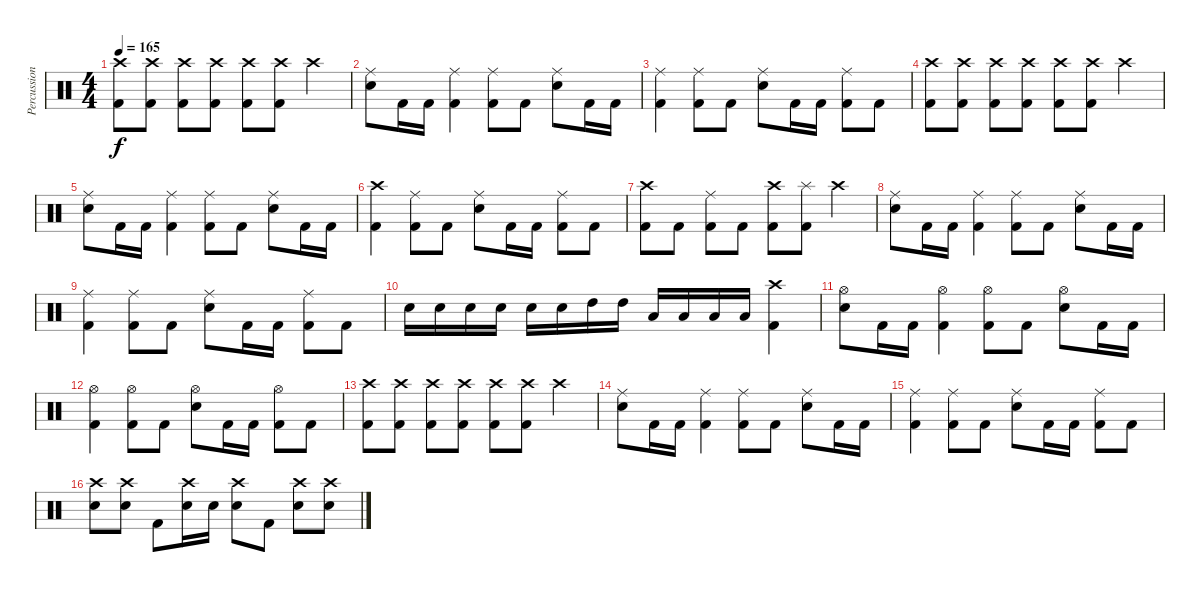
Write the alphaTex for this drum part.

\track ("Percussion" "Percussion") {instrument percussion}
\staff {score}
\articulation defaults
\ts (4 4)
\tempo 165
\clef neutral
\ks c
("Crash high (hit)" "Kick (hit) 2").8{dy f} ("Crash high (hit)" "Kick (hit) 2").8 ("Crash high (hit)" "Kick (hit) 2").8 ("Crash high (hit)" "Kick (hit) 2").8 ("Crash high (hit)" "Kick (hit) 2").8 ("Crash high (hit)" "Kick (hit) 2").8 "Crash high (hit)".4 |
("Ride (middle)" "Electric Snare (hit)").8 "Kick (hit) 2".16 "Kick (hit) 2".16 ("Ride (middle)" "Kick (hit) 2").4 ("Ride (middle)" "Kick (hit) 2").8 "Kick (hit) 2".8 ("Ride (middle)" "Electric Snare (hit)").8 "Kick (hit) 2".16 "Kick (hit) 2".16 |
("Ride (middle)" "Kick (hit) 2").4 ("Ride (middle)" "Kick (hit) 2").8 "Kick (hit) 2".8 ("Ride (middle)" "Electric Snare (hit)").8 "Kick (hit) 2".16 "Kick (hit) 2".16 ("Ride (middle)" "Kick (hit) 2").8 "Kick (hit) 2".8 |
("Crash high (hit)" "Kick (hit) 2").8 ("Crash high (hit)" "Kick (hit) 2").8 ("Crash high (hit)" "Kick (hit) 2").8 ("Crash high (hit)" "Kick (hit) 2").8 ("Crash high (hit)" "Kick (hit) 2").8 ("Crash high (hit)" "Kick (hit) 2").8 "Crash high (hit)".4 |
("Ride (middle)" "Electric Snare (hit)").8 "Kick (hit) 2".16 "Kick (hit) 2".16 ("Ride (middle)" "Kick (hit) 2").4 ("Ride (middle)" "Kick (hit) 2").8 "Kick (hit) 2".8 ("Ride (middle)" "Electric Snare (hit)").8 "Kick (hit) 2".16 "Kick (hit) 2".16 |
("Crash high (hit)" "Kick (hit) 2").4 ("Ride (middle)" "Kick (hit) 2").8 "Kick (hit) 2".8 ("Ride (middle)" "Electric Snare (hit)").8 "Kick (hit) 2".16 "Kick (hit) 2".16 ("Ride (middle)" "Kick (hit) 2").8 "Kick (hit) 2".8 |
("Crash high (hit)" "Kick (hit) 2").8 "Kick (hit) 2".8 ("Ride (middle)" "Kick (hit) 2").8 "Kick (hit) 2".8 ("Crash high (hit)" "Kick (hit) 2").8 ("Splash (hit)" "Kick (hit) 2").8 "Crash high (hit)".4 |
("Ride (middle)" "Electric Snare (hit)").8 "Kick (hit) 2".16 "Kick (hit) 2".16 ("Ride (middle)" "Kick (hit) 2").4 ("Ride (middle)" "Kick (hit) 2").8 "Kick (hit) 2".8 ("Ride (middle)" "Electric Snare (hit)").8 "Kick (hit) 2".16 "Kick (hit) 2".16 |
("Ride (middle)" "Kick (hit) 2").4 ("Ride (middle)" "Kick (hit) 2").8 "Kick (hit) 2".8 ("Ride (middle)" "Electric Snare (hit)").8 "Kick (hit) 2".16 "Kick (hit) 2".16 ("Ride (middle)" "Kick (hit) 2").8 "Kick (hit) 2".8 |
"Electric Snare (hit)".16 "Electric Snare (hit)".16 "Electric Snare (hit)".16 "Electric Snare (hit)".16 "Electric Snare (hit)".16 "Electric Snare (hit)".16 "High Tom (hit)".16 "High Tom (hit)".16 "Low Tom (hit)".16 "Low Tom (hit)".16 "Low Floor Tom (hit)".16 "Low Floor Tom (hit)".16 ("Crash high (hit)" "Kick (hit) 2").4 |
("Hi-Hat (open)" "Electric Snare (hit)").8 "Kick (hit) 2".16 "Kick (hit) 2".16 ("Hi-Hat (open)" "Kick (hit) 2").4 ("Hi-Hat (open)" "Kick (hit) 2").8 "Kick (hit) 2".8 ("Hi-Hat (open)" "Electric Snare (hit)").8 "Kick (hit) 2".16 "Kick (hit) 2".16 |
("Hi-Hat (open)" "Kick (hit) 2").4 ("Hi-Hat (open)" "Kick (hit) 2").8 "Kick (hit) 2".8 ("Hi-Hat (open)" "Electric Snare (hit)").8 "Kick (hit) 2".16 "Kick (hit) 2".16 ("Hi-Hat (open)" "Kick (hit) 2").8 "Kick (hit) 2".8 |
("Crash high (hit)" "Kick (hit) 2").8 ("Crash high (hit)" "Kick (hit) 2").8 ("Crash high (hit)" "Kick (hit) 2").8 ("Crash high (hit)" "Kick (hit) 2").8 ("Crash high (hit)" "Kick (hit) 2").8 ("Crash high (hit)" "Kick (hit) 2").8 "Crash high (hit)".4 |
("Ride (middle)" "Electric Snare (hit)").8 "Kick (hit) 2".16 "Kick (hit) 2".16 ("Ride (middle)" "Kick (hit) 2").4 ("Ride (middle)" "Kick (hit) 2").8 "Kick (hit) 2".8 ("Ride (middle)" "Electric Snare (hit)").8 "Kick (hit) 2".16 "Kick (hit) 2".16 |
("Ride (middle)" "Kick (hit) 2").4 ("Ride (middle)" "Kick (hit) 2").8 "Kick (hit) 2".8 ("Ride (middle)" "Electric Snare (hit)").8 "Kick (hit) 2".16 "Kick (hit) 2".16 ("Ride (middle)" "Kick (hit) 2").8 "Kick (hit) 2".8 |
("Crash high (hit)" "Electric Snare (hit)").8 ("Crash high (hit)" "Electric Snare (hit)").8 "Kick (hit) 2".8 ("Crash high (hit)" "Electric Snare (hit)").16 "Electric Snare (hit)".16 ("Crash high (hit)" "Electric Snare (hit)").8 "Kick (hit) 2".8 ("Crash high (hit)" "Electric Snare (hit)").8 ("Crash high (hit)" "Electric Snare (hit)").8
